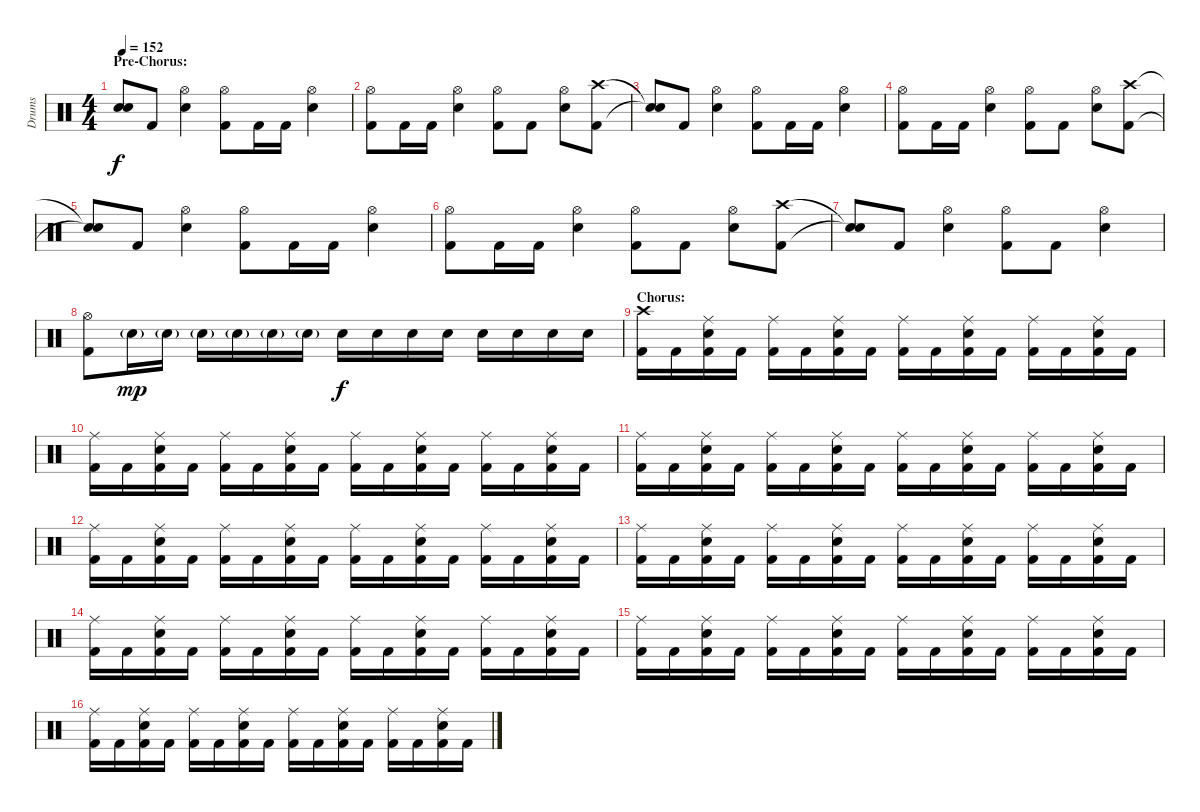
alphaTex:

\track ("Drums" "Drums") {instrument percussion}
\staff {score}
\articulation defaults
\ts (4 4)
\section ("" "Pre-Chorus:")
\tempo 152
\clef neutral
\ks c
("Snare (hit)"{t} "Snare (hit)"{t}).8{dy f} "Kick (hit) 2".8 ("Hi-Hat (open)" "Electric Snare (hit)").4 ("Hi-Hat (open)" "Kick (hit) 2").8 "Kick (hit) 2".16 "Kick (hit) 2".16 ("Hi-Hat (open)" "Electric Snare (hit)").4 |
("Hi-Hat (open)" "Kick (hit) 2").8 "Kick (hit) 2".16 "Kick (hit) 2".16 ("Hi-Hat (open)" "Electric Snare (hit)").4 ("Hi-Hat (open)" "Kick (hit) 2").8 "Kick (hit) 2".8 ("Hi-Hat (open)" "Electric Snare (hit)").8 ("Crash high (hit)" "Kick (hit) 2").8 |
("Snare (hit)"{t} "Snare (hit)"{t}).8 "Kick (hit) 2".8 ("Hi-Hat (open)" "Electric Snare (hit)").4 ("Hi-Hat (open)" "Kick (hit) 2").8 "Kick (hit) 2".16 "Kick (hit) 2".16 ("Hi-Hat (open)" "Electric Snare (hit)").4 |
("Hi-Hat (open)" "Kick (hit) 2").8 "Kick (hit) 2".16 "Kick (hit) 2".16 ("Hi-Hat (open)" "Electric Snare (hit)").4 ("Hi-Hat (open)" "Kick (hit) 2").8 "Kick (hit) 2".8 ("Hi-Hat (open)" "Electric Snare (hit)").8 ("Crash high (hit)" "Kick (hit) 2").8 |
("Snare (hit)"{t} "Snare (hit)"{t}).8 "Kick (hit) 2".8 ("Hi-Hat (open)" "Electric Snare (hit)").4 ("Hi-Hat (open)" "Kick (hit) 2").8 "Kick (hit) 2".16 "Kick (hit) 2".16 ("Hi-Hat (open)" "Electric Snare (hit)").4 |
("Hi-Hat (open)" "Kick (hit) 2").8 "Kick (hit) 2".16 "Kick (hit) 2".16 ("Hi-Hat (open)" "Electric Snare (hit)").4 ("Hi-Hat (open)" "Kick (hit) 2").8 "Kick (hit) 2".8 ("Hi-Hat (open)" "Electric Snare (hit)").8 ("Crash high (hit)" "Kick (hit) 2").8 |
("Snare (hit)"{t} "Snare (hit)"{t}).8 "Kick (hit) 2".8 ("Hi-Hat (open)" "Electric Snare (hit)").4 ("Hi-Hat (open)" "Kick (hit) 2").8 "Kick (hit) 2".8 ("Hi-Hat (open)" "Electric Snare (hit)").4 |
("Hi-Hat (open)" "Kick (hit) 2").8 "Electric Snare (hit)"{g}.16{dy mp} "Electric Snare (hit)"{g}.16 "Electric Snare (hit)"{g}.16 "Electric Snare (hit)"{g}.16 "Electric Snare (hit)"{g}.16 "Electric Snare (hit)"{g}.16 "Electric Snare (hit)".16{dy f} "Electric Snare (hit)".16 "Electric Snare (hit)".16 "Electric Snare (hit)".16 "Electric Snare (hit)".16 "Electric Snare (hit)".16 "Electric Snare (hit)".16 "Electric Snare (hit)".16 |
\section ("" "Chorus:")
("Crash high (hit)" "Kick (hit) 2").16 "Kick (hit) 2".16 ("Ride (middle)" "Electric Snare (hit)" "Kick (hit) 2").16 "Kick (hit) 2".16 ("Ride (middle)" "Kick (hit) 2").16 "Kick (hit) 2".16 ("Ride (middle)" "Electric Snare (hit)" "Kick (hit) 2").16 "Kick (hit) 2".16 ("Ride (middle)" "Kick (hit) 2").16 "Kick (hit) 2".16 ("Ride (middle)" "Electric Snare (hit)" "Kick (hit) 2").16 "Kick (hit) 2".16 ("Ride (middle)" "Kick (hit) 2").16 "Kick (hit) 2".16 ("Ride (middle)" "Electric Snare (hit)" "Kick (hit) 2").16 "Kick (hit) 2".16 |
("Ride (middle)" "Kick (hit) 2").16 "Kick (hit) 2".16 ("Ride (middle)" "Electric Snare (hit)" "Kick (hit) 2").16 "Kick (hit) 2".16 ("Ride (middle)" "Kick (hit) 2").16 "Kick (hit) 2".16 ("Ride (middle)" "Electric Snare (hit)" "Kick (hit) 2").16 "Kick (hit) 2".16 ("Ride (middle)" "Kick (hit) 2").16 "Kick (hit) 2".16 ("Ride (middle)" "Electric Snare (hit)" "Kick (hit) 2").16 "Kick (hit) 2".16 ("Ride (middle)" "Kick (hit) 2").16 "Kick (hit) 2".16 ("Ride (middle)" "Electric Snare (hit)" "Kick (hit) 2").16 "Kick (hit) 2".16 |
("Ride (middle)" "Kick (hit) 2").16 "Kick (hit) 2".16 ("Ride (middle)" "Electric Snare (hit)" "Kick (hit) 2").16 "Kick (hit) 2".16 ("Ride (middle)" "Kick (hit) 2").16 "Kick (hit) 2".16 ("Ride (middle)" "Electric Snare (hit)" "Kick (hit) 2").16 "Kick (hit) 2".16 ("Ride (middle)" "Kick (hit) 2").16 "Kick (hit) 2".16 ("Ride (middle)" "Electric Snare (hit)" "Kick (hit) 2").16 "Kick (hit) 2".16 ("Ride (middle)" "Kick (hit) 2").16 "Kick (hit) 2".16 ("Ride (middle)" "Electric Snare (hit)" "Kick (hit) 2").16 "Kick (hit) 2".16 |
("Ride (middle)" "Kick (hit) 2").16 "Kick (hit) 2".16 ("Ride (middle)" "Electric Snare (hit)" "Kick (hit) 2").16 "Kick (hit) 2".16 ("Ride (middle)" "Kick (hit) 2").16 "Kick (hit) 2".16 ("Ride (middle)" "Electric Snare (hit)" "Kick (hit) 2").16 "Kick (hit) 2".16 ("Ride (middle)" "Kick (hit) 2").16 "Kick (hit) 2".16 ("Ride (middle)" "Electric Snare (hit)" "Kick (hit) 2").16 "Kick (hit) 2".16 ("Ride (middle)" "Kick (hit) 2").16 "Kick (hit) 2".16 ("Ride (middle)" "Electric Snare (hit)" "Kick (hit) 2").16 "Kick (hit) 2".16 |
("Ride (middle)" "Kick (hit) 2").16 "Kick (hit) 2".16 ("Ride (middle)" "Electric Snare (hit)" "Kick (hit) 2").16 "Kick (hit) 2".16 ("Ride (middle)" "Kick (hit) 2").16 "Kick (hit) 2".16 ("Ride (middle)" "Electric Snare (hit)" "Kick (hit) 2").16 "Kick (hit) 2".16 ("Ride (middle)" "Kick (hit) 2").16 "Kick (hit) 2".16 ("Ride (middle)" "Electric Snare (hit)" "Kick (hit) 2").16 "Kick (hit) 2".16 ("Ride (middle)" "Kick (hit) 2").16 "Kick (hit) 2".16 ("Ride (middle)" "Electric Snare (hit)" "Kick (hit) 2").16 "Kick (hit) 2".16 |
("Ride (middle)" "Kick (hit) 2").16 "Kick (hit) 2".16 ("Ride (middle)" "Electric Snare (hit)" "Kick (hit) 2").16 "Kick (hit) 2".16 ("Ride (middle)" "Kick (hit) 2").16 "Kick (hit) 2".16 ("Ride (middle)" "Electric Snare (hit)" "Kick (hit) 2").16 "Kick (hit) 2".16 ("Ride (middle)" "Kick (hit) 2").16 "Kick (hit) 2".16 ("Ride (middle)" "Electric Snare (hit)" "Kick (hit) 2").16 "Kick (hit) 2".16 ("Ride (middle)" "Kick (hit) 2").16 "Kick (hit) 2".16 ("Ride (middle)" "Electric Snare (hit)" "Kick (hit) 2").16 "Kick (hit) 2".16 |
("Ride (middle)" "Kick (hit) 2").16 "Kick (hit) 2".16 ("Ride (middle)" "Electric Snare (hit)" "Kick (hit) 2").16 "Kick (hit) 2".16 ("Ride (middle)" "Kick (hit) 2").16 "Kick (hit) 2".16 ("Ride (middle)" "Electric Snare (hit)" "Kick (hit) 2").16 "Kick (hit) 2".16 ("Ride (middle)" "Kick (hit) 2").16 "Kick (hit) 2".16 ("Ride (middle)" "Electric Snare (hit)" "Kick (hit) 2").16 "Kick (hit) 2".16 ("Ride (middle)" "Kick (hit) 2").16 "Kick (hit) 2".16 ("Ride (middle)" "Electric Snare (hit)" "Kick (hit) 2").16 "Kick (hit) 2".16 |
("Ride (middle)" "Kick (hit) 2").16 "Kick (hit) 2".16 ("Ride (middle)" "Electric Snare (hit)" "Kick (hit) 2").16 "Kick (hit) 2".16 ("Ride (middle)" "Kick (hit) 2").16 "Kick (hit) 2".16 ("Ride (middle)" "Electric Snare (hit)" "Kick (hit) 2").16 "Kick (hit) 2".16 ("Ride (middle)" "Kick (hit) 2").16 "Kick (hit) 2".16 ("Ride (middle)" "Electric Snare (hit)" "Kick (hit) 2").16 "Kick (hit) 2".16 ("Ride (middle)" "Kick (hit) 2").16 "Kick (hit) 2".16 ("Ride (middle)" "Electric Snare (hit)" "Kick (hit) 2").16 "Kick (hit) 2".16
